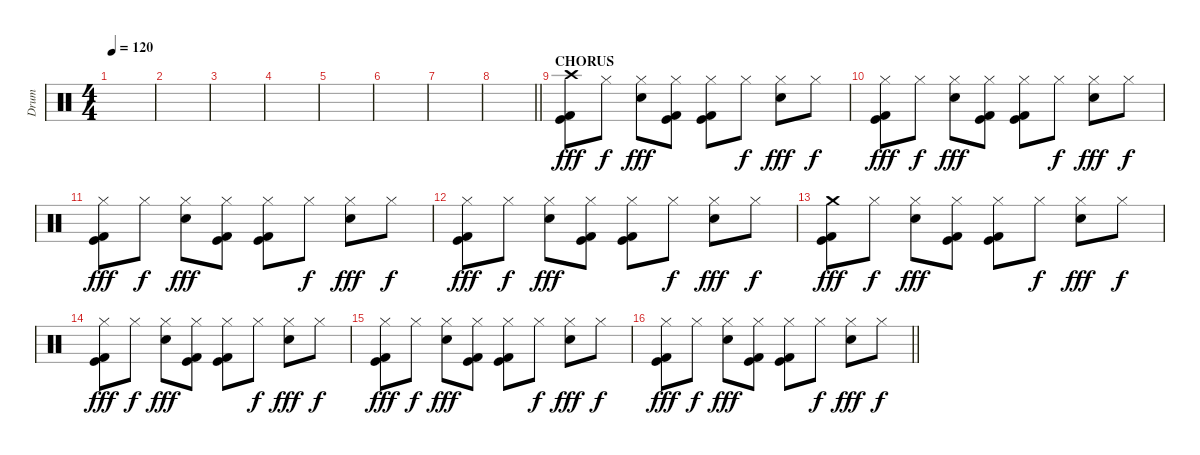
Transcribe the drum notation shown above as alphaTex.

\track ("Drum" "Drum") {instrument percussion}
\staff {score}
\articulation defaults
\ts (4 4)
\tempo 120
\clef neutral
\ks c
|
|
|
|
|
|
|
\barLineRight lightlight
|
\section ("" "CHORUS")
("Kick (hit)" "Kick (hit) 2" "Crash high (hit)").8{dy fff} "Hi-Hat (closed)".8{dy f} ("Snare (hit) 2" "Hi-Hat (closed)").8{dy fff} ("Kick (hit)" "Kick (hit) 2" "Hi-Hat (closed)").8 ("Kick (hit)" "Kick (hit) 2" "Hi-Hat (closed)").8 "Hi-Hat (closed)".8{dy f} ("Snare (hit) 2" "Hi-Hat (closed)").8{dy fff} "Hi-Hat (closed)".8{dy f} |
("Kick (hit)" "Kick (hit) 2" "Hi-Hat (closed)").8{dy fff} "Hi-Hat (closed)".8{dy f} ("Snare (hit) 2" "Hi-Hat (closed)").8{dy fff} ("Kick (hit)" "Kick (hit) 2" "Hi-Hat (closed)").8 ("Kick (hit)" "Kick (hit) 2" "Hi-Hat (closed)").8 "Hi-Hat (closed)".8{dy f} ("Snare (hit) 2" "Hi-Hat (closed)").8{dy fff} "Hi-Hat (closed)".8{dy f} |
("Kick (hit)" "Kick (hit) 2" "Hi-Hat (closed)").8{dy fff} "Hi-Hat (closed)".8{dy f} ("Snare (hit) 2" "Hi-Hat (closed)").8{dy fff} ("Kick (hit)" "Kick (hit) 2" "Hi-Hat (closed)").8 ("Kick (hit)" "Kick (hit) 2" "Hi-Hat (closed)").8 "Hi-Hat (closed)".8{dy f} ("Snare (hit) 2" "Hi-Hat (closed)").8{dy fff} "Hi-Hat (closed)".8{dy f} |
("Kick (hit)" "Kick (hit) 2" "Hi-Hat (closed)").8{dy fff} "Hi-Hat (closed)".8{dy f} ("Snare (hit) 2" "Hi-Hat (closed)").8{dy fff} ("Kick (hit)" "Kick (hit) 2" "Hi-Hat (closed)").8 ("Kick (hit)" "Kick (hit) 2" "Hi-Hat (closed)").8 "Hi-Hat (closed)".8{dy f} ("Snare (hit) 2" "Hi-Hat (closed)").8{dy fff} "Hi-Hat (closed)".8{dy f} |
("Kick (hit)" "Kick (hit) 2" "Crash medium (hit)").8{dy fff} "Hi-Hat (closed)".8{dy f} ("Snare (hit) 2" "Hi-Hat (closed)").8{dy fff} ("Kick (hit)" "Kick (hit) 2" "Hi-Hat (closed)").8 ("Kick (hit)" "Kick (hit) 2" "Hi-Hat (closed)").8 "Hi-Hat (closed)".8{dy f} ("Snare (hit) 2" "Hi-Hat (closed)").8{dy fff} "Hi-Hat (closed)".8{dy f} |
("Kick (hit)" "Kick (hit) 2" "Hi-Hat (closed)").8{dy fff} "Hi-Hat (closed)".8{dy f} ("Snare (hit) 2" "Hi-Hat (closed)").8{dy fff} ("Kick (hit)" "Kick (hit) 2" "Hi-Hat (closed)").8 ("Kick (hit)" "Kick (hit) 2" "Hi-Hat (closed)").8 "Hi-Hat (closed)".8{dy f} ("Snare (hit) 2" "Hi-Hat (closed)").8{dy fff} "Hi-Hat (closed)".8{dy f} |
("Kick (hit)" "Kick (hit) 2" "Hi-Hat (closed)").8{dy fff} "Hi-Hat (closed)".8{dy f} ("Snare (hit) 2" "Hi-Hat (closed)").8{dy fff} ("Kick (hit)" "Kick (hit) 2" "Hi-Hat (closed)").8 ("Kick (hit)" "Kick (hit) 2" "Hi-Hat (closed)").8 "Hi-Hat (closed)".8{dy f} ("Snare (hit) 2" "Hi-Hat (closed)").8{dy fff} "Hi-Hat (closed)".8{dy f} |
\barLineRight lightlight
("Kick (hit)" "Kick (hit) 2" "Hi-Hat (closed)").8{dy fff} "Hi-Hat (closed)".8{dy f} ("Snare (hit) 2" "Hi-Hat (closed)").8{dy fff} ("Kick (hit)" "Kick (hit) 2" "Hi-Hat (closed)").8 ("Kick (hit)" "Kick (hit) 2" "Hi-Hat (closed)").8 "Hi-Hat (closed)".8{dy f} ("Snare (hit) 2" "Hi-Hat (closed)").8{dy fff} "Hi-Hat (closed)".8{dy f}
